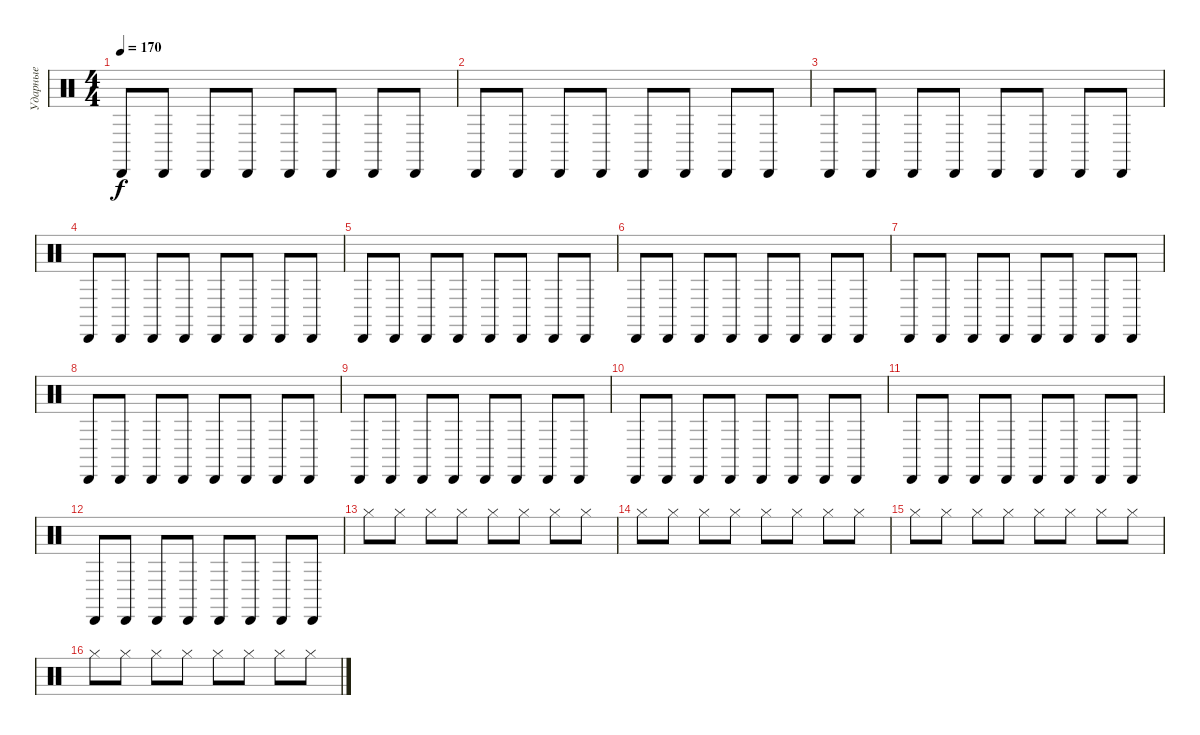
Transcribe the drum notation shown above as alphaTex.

\track ("Ударные" "Ударные") {instrument percussion}
\staff {score}
\articulation defaults
\ts (4 4)
\tempo 170
\clef neutral
\ks c "Cabasa (hit)".8{dy f} "Cabasa (hit)".8 "Cabasa (hit)".8 "Cabasa (hit)".8 "Cabasa (hit)".8 "Cabasa (hit)".8 "Cabasa (hit)".8 "Cabasa (hit)".8
|
"Cabasa (hit)".8 "Cabasa (hit)".8 "Cabasa (hit)".8 "Cabasa (hit)".8 "Cabasa (hit)".8 "Cabasa (hit)".8 "Cabasa (hit)".8 "Cabasa (hit)".8 |
"Cabasa (hit)".8 "Cabasa (hit)".8 "Cabasa (hit)".8 "Cabasa (hit)".8 "Cabasa (hit)".8 "Cabasa (hit)".8 "Cabasa (hit)".8 "Cabasa (hit)".8 |
"Cabasa (hit)".8 "Cabasa (hit)".8 "Cabasa (hit)".8 "Cabasa (hit)".8 "Cabasa (hit)".8 "Cabasa (hit)".8 "Cabasa (hit)".8 "Cabasa (hit)".8 |
"Cabasa (hit)".8 "Cabasa (hit)".8 "Cabasa (hit)".8 "Cabasa (hit)".8 "Cabasa (hit)".8 "Cabasa (hit)".8 "Cabasa (hit)".8 "Cabasa (hit)".8 |
"Cabasa (hit)".8 "Cabasa (hit)".8 "Cabasa (hit)".8 "Cabasa (hit)".8 "Cabasa (hit)".8 "Cabasa (hit)".8 "Cabasa (hit)".8 "Cabasa (hit)".8 |
"Cabasa (hit)".8 "Cabasa (hit)".8 "Cabasa (hit)".8 "Cabasa (hit)".8 "Cabasa (hit)".8 "Cabasa (hit)".8 "Cabasa (hit)".8 "Cabasa (hit)".8 |
"Cabasa (hit)".8 "Cabasa (hit)".8 "Cabasa (hit)".8 "Cabasa (hit)".8 "Cabasa (hit)".8 "Cabasa (hit)".8 "Cabasa (hit)".8 "Cabasa (hit)".8 |
"Cabasa (hit)".8 "Cabasa (hit)".8 "Cabasa (hit)".8 "Cabasa (hit)".8 "Cabasa (hit)".8 "Cabasa (hit)".8 "Cabasa (hit)".8 "Cabasa (hit)".8 |
"Cabasa (hit)".8 "Cabasa (hit)".8 "Cabasa (hit)".8 "Cabasa (hit)".8 "Cabasa (hit)".8 "Cabasa (hit)".8 "Cabasa (hit)".8 "Cabasa (hit)".8 |
"Cabasa (hit)".8 "Cabasa (hit)".8 "Cabasa (hit)".8 "Cabasa (hit)".8 "Cabasa (hit)".8 "Cabasa (hit)".8 "Cabasa (hit)".8 "Cabasa (hit)".8 |
"Cabasa (hit)".8 "Cabasa (hit)".8 "Cabasa (hit)".8 "Cabasa (hit)".8 "Cabasa (hit)".8 "Cabasa (hit)".8 "Cabasa (hit)".8 "Cabasa (hit)".8 |
"Hi-Hat (closed)".8 "Hi-Hat (closed)".8 "Hi-Hat (closed)".8 "Hi-Hat (closed)".8 "Hi-Hat (closed)".8 "Hi-Hat (closed)".8 "Hi-Hat (closed)".8 "Hi-Hat (closed)".8 |
"Hi-Hat (closed)".8 "Hi-Hat (closed)".8 "Hi-Hat (closed)".8 "Hi-Hat (closed)".8 "Hi-Hat (closed)".8 "Hi-Hat (closed)".8 "Hi-Hat (closed)".8 "Hi-Hat (closed)".8 |
"Hi-Hat (closed)".8 "Hi-Hat (closed)".8 "Hi-Hat (closed)".8 "Hi-Hat (closed)".8 "Hi-Hat (closed)".8 "Hi-Hat (closed)".8 "Hi-Hat (closed)".8 "Hi-Hat (closed)".8 |
"Hi-Hat (closed)".8 "Hi-Hat (closed)".8 "Hi-Hat (closed)".8 "Hi-Hat (closed)".8 "Hi-Hat (closed)".8 "Hi-Hat (closed)".8 "Hi-Hat (closed)".8 "Hi-Hat (closed)".8
